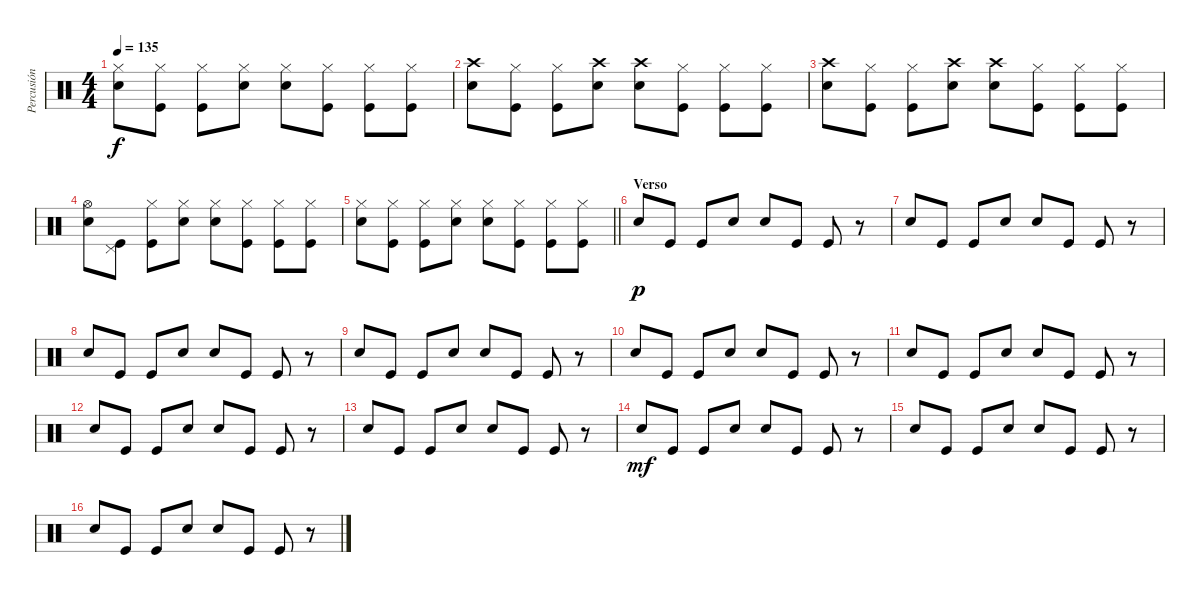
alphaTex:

\track ("Percusión" "Percusión") {instrument percussion}
\staff {score}
\articulation defaults
\ts (4 4)
\tempo 135
\clef neutral
\ks c
("Hi-Hat (closed)" "Snare (hit) 2").8{dy f} ("Hi-Hat (closed)" "Kick (hit)").8 ("Hi-Hat (closed)" "Kick (hit)").8 ("Hi-Hat (closed)" "Snare (hit) 2").8 ("Hi-Hat (closed)" "Snare (hit) 2").8 ("Hi-Hat (closed)" "Kick (hit)").8 ("Hi-Hat (closed)" "Kick (hit)").8 ("Hi-Hat (closed)" "Kick (hit)").8 |
("Crash high (hit)" "Snare (hit) 2").8 ("Hi-Hat (closed)" "Kick (hit)").8 ("Hi-Hat (closed)" "Kick (hit)").8 ("Crash high (hit)" "Snare (hit) 2").8 ("Crash high (hit)" "Snare (hit) 2").8 ("Hi-Hat (closed)" "Kick (hit)").8 ("Hi-Hat (closed)" "Kick (hit)").8 ("Hi-Hat (closed)" "Kick (hit)").8 |
("Crash high (hit)" "Snare (hit) 2").8 ("Hi-Hat (closed)" "Kick (hit)").8 ("Hi-Hat (closed)" "Kick (hit)").8 ("Crash high (hit)" "Snare (hit) 2").8 ("Crash high (hit)" "Snare (hit) 2").8 ("Hi-Hat (closed)" "Kick (hit)").8 ("Hi-Hat (closed)" "Kick (hit)").8 ("Hi-Hat (closed)" "Kick (hit)").8 |
("Hi-Hat (open)" "Snare (hit) 2").8 ("Pedal Hi-Hat (hit)" "Kick (hit)").8 ("Hi-Hat (closed)" "Kick (hit)").8 ("Hi-Hat (closed)" "Snare (hit) 2").8 ("Hi-Hat (closed)" "Snare (hit) 2").8 ("Hi-Hat (closed)" "Kick (hit)").8 ("Hi-Hat (closed)" "Kick (hit)").8 ("Hi-Hat (closed)" "Kick (hit)").8 |
\barLineRight lightlight
("Hi-Hat (closed)" "Snare (hit) 2").8 ("Hi-Hat (closed)" "Kick (hit)").8 ("Hi-Hat (closed)" "Kick (hit)").8 ("Hi-Hat (closed)" "Snare (hit) 2").8 ("Hi-Hat (closed)" "Snare (hit) 2").8 ("Hi-Hat (closed)" "Kick (hit)").8 ("Hi-Hat (closed)" "Kick (hit)").8 ("Hi-Hat (closed)" "Kick (hit)").8 |
\section ("" "Verso")
"Snare (hit) 2".8{dy p} "Kick (hit)".8 "Kick (hit)".8 "Snare (hit) 2".8 "Snare (hit) 2".8 "Kick (hit)".8 "Kick (hit)".8 r.8 |
"Snare (hit) 2".8 "Kick (hit)".8 "Kick (hit)".8 "Snare (hit) 2".8 "Snare (hit) 2".8 "Kick (hit)".8 "Kick (hit)".8 r.8 |
"Snare (hit) 2".8 "Kick (hit)".8 "Kick (hit)".8 "Snare (hit) 2".8 "Snare (hit) 2".8 "Kick (hit)".8 "Kick (hit)".8 r.8 |
"Snare (hit) 2".8 "Kick (hit)".8 "Kick (hit)".8 "Snare (hit) 2".8 "Snare (hit) 2".8 "Kick (hit)".8 "Kick (hit)".8 r.8 |
"Snare (hit) 2".8 "Kick (hit)".8 "Kick (hit)".8 "Snare (hit) 2".8 "Snare (hit) 2".8 "Kick (hit)".8 "Kick (hit)".8 r.8 |
"Snare (hit) 2".8 "Kick (hit)".8 "Kick (hit)".8 "Snare (hit) 2".8 "Snare (hit) 2".8 "Kick (hit)".8 "Kick (hit)".8 r.8 |
"Snare (hit) 2".8 "Kick (hit)".8 "Kick (hit)".8 "Snare (hit) 2".8 "Snare (hit) 2".8 "Kick (hit)".8 "Kick (hit)".8 r.8 |
"Snare (hit) 2".8 "Kick (hit)".8 "Kick (hit)".8 "Snare (hit) 2".8 "Snare (hit) 2".8 "Kick (hit)".8 "Kick (hit)".8 r.8 |
"Snare (hit) 2".8{dy mf} "Kick (hit)".8 "Kick (hit)".8 "Snare (hit) 2".8 "Snare (hit) 2".8 "Kick (hit)".8 "Kick (hit)".8 r.8 |
"Snare (hit) 2".8 "Kick (hit)".8 "Kick (hit)".8 "Snare (hit) 2".8 "Snare (hit) 2".8 "Kick (hit)".8 "Kick (hit)".8 r.8 |
"Snare (hit) 2".8 "Kick (hit)".8 "Kick (hit)".8 "Snare (hit) 2".8 "Snare (hit) 2".8 "Kick (hit)".8 "Kick (hit)".8 r.8
